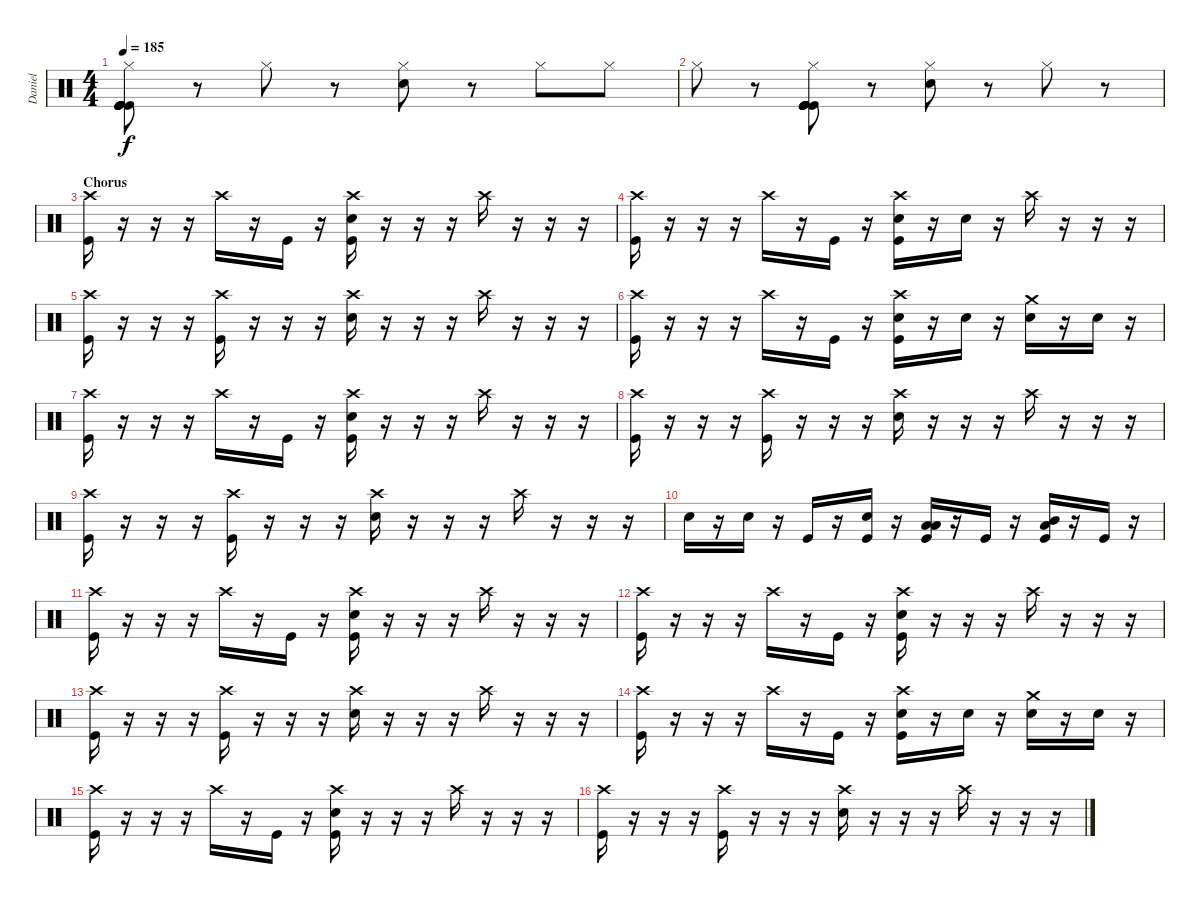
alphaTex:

\track ("Daniel" "Daniel") {instrument percussion}
\staff {score}
\articulation defaults
\ts (4 4)
\tempo 185
\clef neutral
\ks c
("Kick (hit)" "Kick (hit)" "Kick (hit)" "Hi-Hat (closed)" "Kick (hit)" "Kick (hit)").8{dy f} r.8 "Hi-Hat (closed)".8 r.8 ("Hi-Hat (closed)" "Snare (hit) 2").8 r.8 "Hi-Hat (closed)".8 "Hi-Hat (closed)".8 |
"Hi-Hat (closed)".8 r.8 ("Kick (hit)" "Kick (hit)" "Kick (hit)" "Hi-Hat (closed)" "Kick (hit)" "Kick (hit)").8 r.8 ("Hi-Hat (closed)" "Snare (hit) 2").8 r.8 "Hi-Hat (closed)".8 r.8 |
\section ("" "Chorus")
("Crash high (hit)" "Kick (hit)").16{volume 14} r.16 r.16 r.16 "Crash high (hit)".16 r.16 "Kick (hit)".16 r.16 ("Crash high (hit)" "Snare (hit) 2" "Kick (hit)").16 r.16 r.16 r.16 "Crash high (hit)".16 r.16 r.16 r.16 |
("Crash high (hit)" "Kick (hit)").16 r.16 r.16 r.16 "Crash high (hit)".16 r.16 "Kick (hit)".16 r.16 ("Crash high (hit)" "Snare (hit) 2" "Kick (hit)").16 r.16 "Snare (hit) 2".16 r.16 "Crash high (hit)".16 r.16 r.16 r.16 |
("Crash high (hit)" "Kick (hit)").16 r.16 r.16 r.16 ("Crash high (hit)" "Kick (hit)").16 r.16 r.16 r.16 ("Crash high (hit)" "Snare (hit) 2").16 r.16 r.16 r.16 "Crash high (hit)".16 r.16 r.16 r.16 |
("Crash high (hit)" "Kick (hit)").16 r.16 r.16 r.16 "Crash high (hit)".16 r.16 "Kick (hit)".16 r.16 ("Crash high (hit)" "Snare (hit) 2" "Kick (hit)").16 r.16 "Snare (hit) 2".16 r.16 ("Crash medium (hit)" "Snare (hit) 2").16 r.16 "Snare (hit) 2".16 r.16 |
("Crash high (hit)" "Kick (hit)").16 r.16 r.16 r.16 "Crash high (hit)".16 r.16 "Kick (hit)".16 r.16 ("Crash high (hit)" "Snare (hit) 2" "Kick (hit)").16 r.16 r.16 r.16 "Crash high (hit)".16 r.16 r.16 r.16 |
("Crash high (hit)" "Kick (hit)").16 r.16 r.16 r.16 ("Crash high (hit)" "Kick (hit)").16 r.16 r.16 r.16 ("Crash high (hit)" "Snare (hit) 2").16 r.16 r.16 r.16 "Crash high (hit)".16 r.16 r.16 r.16 |
("Crash high (hit)" "Kick (hit)").16 r.16 r.16 r.16 ("Crash high (hit)" "Kick (hit)").16 r.16 r.16 r.16 ("Crash high (hit)" "Snare (hit) 2").16 r.16 r.16 r.16 "Crash high (hit)".16 r.16 r.16 r.16 |
"Snare (hit) 2".16 r.16 "Snare (hit) 2".16 r.16 "Kick (hit)".16 r.16 ("Snare (hit) 2" "Kick (hit)").16 r.16 ("Low Tom (hit)" "Low Floor Tom (hit)" "Kick (hit)").16 r.16 "Kick (hit)".16 r.16 ("Mid Tom (hit)" "Low Tom (hit)" "Kick (hit)").16 r.16 "Kick (hit)".16 r.16 |
("Crash high (hit)" "Kick (hit)").16 r.16 r.16 r.16 "Crash high (hit)".16 r.16 "Kick (hit)".16 r.16 ("Crash high (hit)" "Snare (hit) 2" "Kick (hit)").16 r.16 r.16 r.16 "Crash high (hit)".16 r.16 r.16 r.16 |
("Crash high (hit)" "Kick (hit)").16 r.16 r.16 r.16 "Crash high (hit)".16 r.16 "Kick (hit)".16 r.16 ("Crash high (hit)" "Snare (hit) 2" "Kick (hit)").16 r.16 r.16 r.16 "Crash high (hit)".16 r.16 r.16 r.16 |
("Crash high (hit)" "Kick (hit)").16 r.16 r.16 r.16 ("Crash high (hit)" "Kick (hit)").16 r.16 r.16 r.16 ("Crash high (hit)" "Snare (hit) 2").16 r.16 r.16 r.16 "Crash high (hit)".16 r.16 r.16 r.16 |
("Crash high (hit)" "Kick (hit)").16 r.16 r.16 r.16 "Crash high (hit)".16 r.16 "Kick (hit)".16 r.16 ("Crash high (hit)" "Snare (hit) 2" "Kick (hit)").16 r.16 "Snare (hit) 2".16 r.16 ("Crash medium (hit)" "Snare (hit) 2").16 r.16 "Snare (hit) 2".16 r.16 |
("Crash high (hit)" "Kick (hit)").16 r.16 r.16 r.16 "Crash high (hit)".16 r.16 "Kick (hit)".16 r.16 ("Crash high (hit)" "Snare (hit) 2" "Kick (hit)").16 r.16 r.16 r.16 "Crash high (hit)".16 r.16 r.16 r.16 |
("Crash high (hit)" "Kick (hit)").16 r.16 r.16 r.16 ("Crash high (hit)" "Kick (hit)").16 r.16 r.16 r.16 ("Crash high (hit)" "Snare (hit) 2").16 r.16 r.16 r.16 "Crash high (hit)".16 r.16 r.16 r.16
